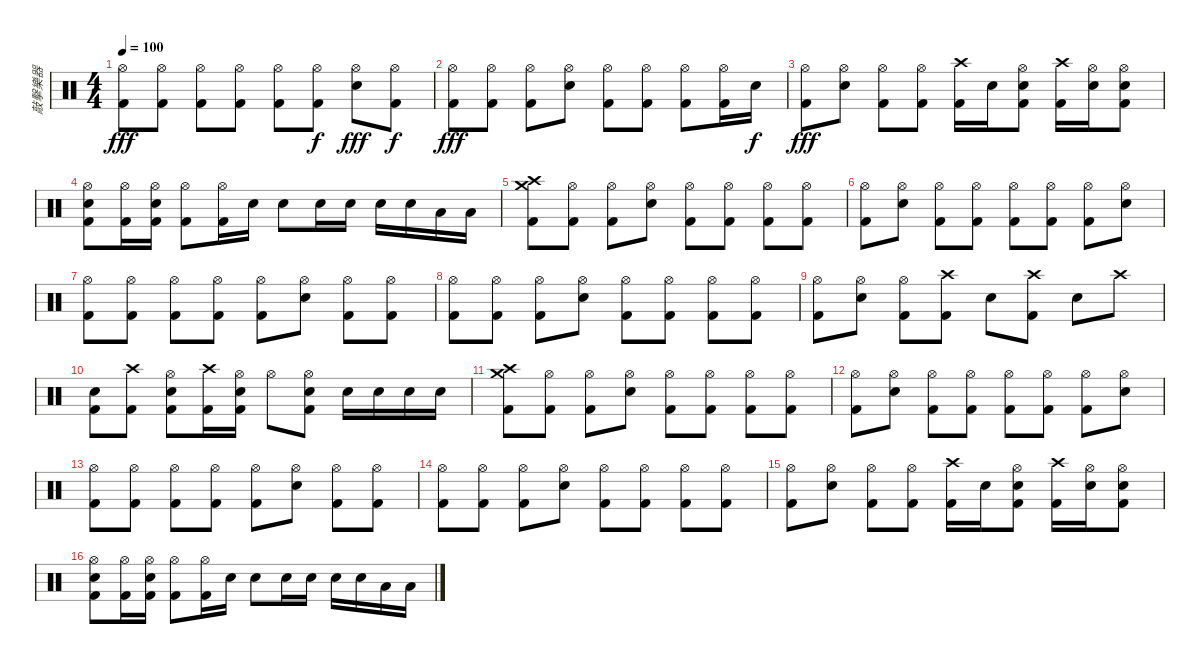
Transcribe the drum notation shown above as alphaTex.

\track ("敲擊樂器" "敲擊樂器") {instrument percussion}
\staff {score}
\articulation defaults
\ts (4 4)
\tempo 100
\clef neutral
\ks c
("Hi-Hat (open)" "Kick (hit) 2").8{dy fff} ("Hi-Hat (open)" "Kick (hit) 2").8 ("Hi-Hat (open)" "Kick (hit) 2").8 ("Hi-Hat (open)" "Kick (hit) 2").8 ("Hi-Hat (open)" "Kick (hit) 2").8 ("Hi-Hat (open)" "Kick (hit) 2").8{dy f} ("Hi-Hat (open)" "Electric Snare (hit)").8{dy fff} ("Hi-Hat (open)" "Kick (hit) 2").8{dy f} |
("Hi-Hat (open)" "Kick (hit) 2").8{dy fff} ("Hi-Hat (open)" "Kick (hit) 2").8 ("Hi-Hat (open)" "Kick (hit) 2").8 ("Hi-Hat (open)" "Electric Snare (hit)").8 ("Hi-Hat (open)" "Kick (hit) 2").8 ("Hi-Hat (open)" "Kick (hit) 2").8 ("Hi-Hat (open)" "Kick (hit) 2").8 ("Hi-Hat (open)" "Kick (hit) 2").16 "Electric Snare (hit)".16{dy f} |
("Hi-Hat (open)" "Kick (hit) 2").8{dy fff} ("Hi-Hat (open)" "Electric Snare (hit)").8 ("Hi-Hat (open)" "Kick (hit) 2").8 ("Hi-Hat (open)" "Kick (hit) 2").8 ("Crash high (hit)" "Kick (hit) 2").16 "Electric Snare (hit)".16 ("Hi-Hat (open)" "Electric Snare (hit)" "Kick (hit) 2").8 ("Crash high (hit)" "Kick (hit) 2").16 ("Hi-Hat (open)" "Electric Snare (hit)").16 ("Hi-Hat (open)" "Electric Snare (hit)" "Kick (hit) 2").8 |
("Hi-Hat (open)" "Electric Snare (hit)" "Kick (hit) 2").8 ("Hi-Hat (open)" "Kick (hit) 2").16 ("Hi-Hat (open)" "Electric Snare (hit)" "Kick (hit) 2").16 ("Hi-Hat (open)" "Kick (hit) 2").8 ("Hi-Hat (open)" "Kick (hit) 2").16 "Electric Snare (hit)".16 "Electric Snare (hit)".8 "Electric Snare (hit)".16 "Electric Snare (hit)".16 "Electric Snare (hit)".16 "Electric Snare (hit)".16 "Low Tom (hit)".16 "Low Tom (hit)".16 |
("Crash high (hit)" "Crash medium (hit)" "Kick (hit) 2").8 ("Hi-Hat (open)" "Kick (hit) 2").8 ("Hi-Hat (open)" "Kick (hit) 2").8 ("Hi-Hat (open)" "Electric Snare (hit)").8 ("Hi-Hat (open)" "Kick (hit) 2").8 ("Hi-Hat (open)" "Kick (hit) 2").8 ("Hi-Hat (open)" "Kick (hit) 2").8 ("Hi-Hat (open)" "Kick (hit) 2").8 |
("Hi-Hat (open)" "Kick (hit) 2").8 ("Hi-Hat (open)" "Electric Snare (hit)").8 ("Hi-Hat (open)" "Kick (hit) 2").8 ("Hi-Hat (open)" "Kick (hit) 2").8 ("Hi-Hat (open)" "Kick (hit) 2").8 ("Hi-Hat (open)" "Kick (hit) 2").8 ("Hi-Hat (open)" "Kick (hit) 2").8 ("Hi-Hat (open)" "Electric Snare (hit)").8 |
("Hi-Hat (open)" "Kick (hit) 2").8 ("Hi-Hat (open)" "Kick (hit) 2").8 ("Hi-Hat (open)" "Kick (hit) 2").8 ("Hi-Hat (open)" "Kick (hit) 2").8 ("Hi-Hat (open)" "Kick (hit) 2").8 ("Hi-Hat (open)" "Electric Snare (hit)").8 ("Hi-Hat (open)" "Kick (hit) 2").8 ("Hi-Hat (open)" "Kick (hit) 2").8 |
("Hi-Hat (open)" "Kick (hit) 2").8 ("Hi-Hat (open)" "Kick (hit) 2").8 ("Hi-Hat (open)" "Kick (hit) 2").8 ("Hi-Hat (open)" "Electric Snare (hit)").8 ("Hi-Hat (open)" "Kick (hit) 2").8 ("Hi-Hat (open)" "Kick (hit) 2").8 ("Hi-Hat (open)" "Kick (hit) 2").8 ("Hi-Hat (open)" "Kick (hit) 2").8 |
("Hi-Hat (open)" "Kick (hit) 2").8 ("Hi-Hat (open)" "Electric Snare (hit)").8 ("Hi-Hat (open)" "Kick (hit) 2").8 ("Crash high (hit)" "Kick (hit) 2").8 "Electric Snare (hit)".8 ("Crash high (hit)" "Kick (hit) 2").8 "Electric Snare (hit)".8 "Crash high (hit)".8 |
("Electric Snare (hit)" "Kick (hit) 2").8 ("Crash high (hit)" "Kick (hit) 2").8 ("Hi-Hat (open)" "Electric Snare (hit)" "Kick (hit) 2").8 ("Crash high (hit)" "Kick (hit) 2").16 ("Hi-Hat (open)" "Electric Snare (hit)" "Kick (hit) 2").16 "Hi-Hat (open)".8 ("Hi-Hat (open)" "Electric Snare (hit)" "Kick (hit) 2").8 "Electric Snare (hit)".16 "Electric Snare (hit)".16 "Electric Snare (hit)".16 "Electric Snare (hit)".16 |
("Crash high (hit)" "Crash medium (hit)" "Kick (hit) 2").8 ("Hi-Hat (open)" "Kick (hit) 2").8 ("Hi-Hat (open)" "Kick (hit) 2").8 ("Hi-Hat (open)" "Electric Snare (hit)").8 ("Hi-Hat (open)" "Kick (hit) 2").8 ("Hi-Hat (open)" "Kick (hit) 2").8 ("Hi-Hat (open)" "Kick (hit) 2").8 ("Hi-Hat (open)" "Kick (hit) 2").8 |
("Hi-Hat (open)" "Kick (hit) 2").8 ("Hi-Hat (open)" "Electric Snare (hit)").8 ("Hi-Hat (open)" "Kick (hit) 2").8 ("Hi-Hat (open)" "Kick (hit) 2").8 ("Hi-Hat (open)" "Kick (hit) 2").8 ("Hi-Hat (open)" "Kick (hit) 2").8 ("Hi-Hat (open)" "Kick (hit) 2").8 ("Hi-Hat (open)" "Electric Snare (hit)").8 |
("Hi-Hat (open)" "Kick (hit) 2").8 ("Hi-Hat (open)" "Kick (hit) 2").8 ("Hi-Hat (open)" "Kick (hit) 2").8 ("Hi-Hat (open)" "Kick (hit) 2").8 ("Hi-Hat (open)" "Kick (hit) 2").8 ("Hi-Hat (open)" "Electric Snare (hit)").8 ("Hi-Hat (open)" "Kick (hit) 2").8 ("Hi-Hat (open)" "Kick (hit) 2").8 |
("Hi-Hat (open)" "Kick (hit) 2").8 ("Hi-Hat (open)" "Kick (hit) 2").8 ("Hi-Hat (open)" "Kick (hit) 2").8 ("Hi-Hat (open)" "Electric Snare (hit)").8 ("Hi-Hat (open)" "Kick (hit) 2").8 ("Hi-Hat (open)" "Kick (hit) 2").8 ("Hi-Hat (open)" "Kick (hit) 2").8 ("Hi-Hat (open)" "Kick (hit) 2").8 |
("Hi-Hat (open)" "Kick (hit) 2").8 ("Hi-Hat (open)" "Electric Snare (hit)").8 ("Hi-Hat (open)" "Kick (hit) 2").8 ("Hi-Hat (open)" "Kick (hit) 2").8 ("Crash high (hit)" "Kick (hit) 2").16 "Electric Snare (hit)".16 ("Hi-Hat (open)" "Electric Snare (hit)" "Kick (hit) 2").8 ("Crash high (hit)" "Kick (hit) 2").16 ("Hi-Hat (open)" "Electric Snare (hit)").16 ("Hi-Hat (open)" "Electric Snare (hit)" "Kick (hit) 2").8 |
("Hi-Hat (open)" "Electric Snare (hit)" "Kick (hit) 2").8 ("Hi-Hat (open)" "Kick (hit) 2").16 ("Hi-Hat (open)" "Electric Snare (hit)" "Kick (hit) 2").16 ("Hi-Hat (open)" "Kick (hit) 2").8 ("Hi-Hat (open)" "Kick (hit) 2").16 "Electric Snare (hit)".16 "Electric Snare (hit)".8 "Electric Snare (hit)".16 "Electric Snare (hit)".16 "Electric Snare (hit)".16 "Electric Snare (hit)".16 "Low Tom (hit)".16 "Low Tom (hit)".16
